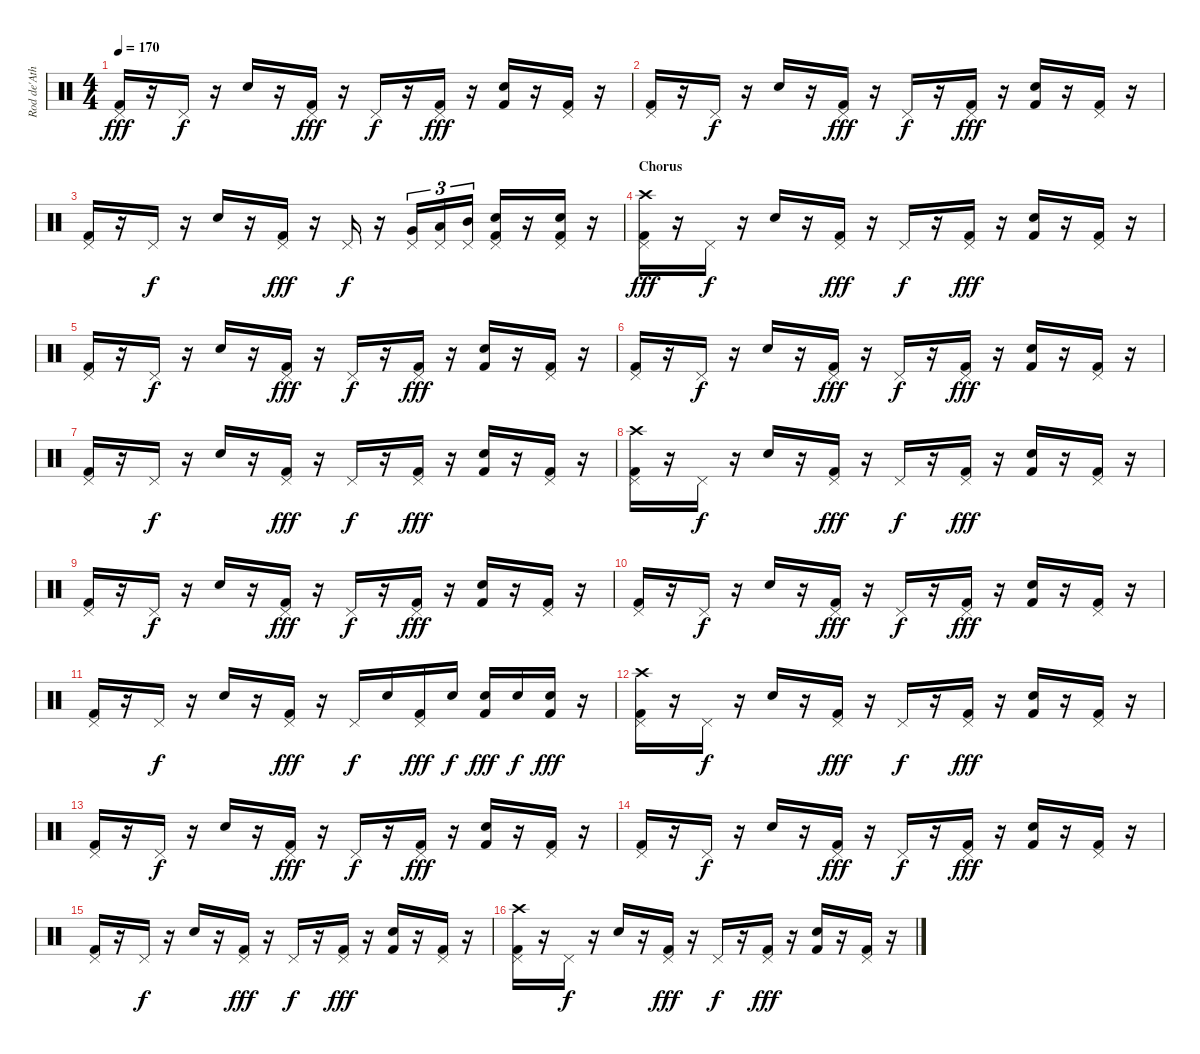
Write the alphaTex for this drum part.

\track ("Rod de'Ath" "Rod de'Ath") {instrument percussion}
\staff {score}
\articulation defaults
\ts (4 4)
\tempo 170
\clef neutral
\ks c
("Pedal Hi-Hat (hit)" "Kick (hit) 2").16{dy fff} r.16 "Pedal Hi-Hat (hit)".16{dy f} r.16 "Snare (hit) 2".16 r.16 ("Pedal Hi-Hat (hit)" "Kick (hit) 2").16{dy fff} r.16 "Pedal Hi-Hat (hit)".16{dy f} r.16 ("Pedal Hi-Hat (hit)" "Kick (hit) 2").16{dy fff} r.16 ("Electric Snare (hit)" "Kick (hit) 2").16 r.16 ("Pedal Hi-Hat (hit)" "Kick (hit) 2").16 r.16 |
("Pedal Hi-Hat (hit)" "Kick (hit) 2").16 r.16 "Pedal Hi-Hat (hit)".16{dy f} r.16 "Snare (hit) 2".16 r.16 ("Pedal Hi-Hat (hit)" "Kick (hit) 2").16{dy fff} r.16 "Pedal Hi-Hat (hit)".16{dy f} r.16 ("Pedal Hi-Hat (hit)" "Kick (hit) 2").16{dy fff} r.16 ("Electric Snare (hit)" "Kick (hit) 2").16 r.16 ("Pedal Hi-Hat (hit)" "Kick (hit) 2").16 r.16 |
("Pedal Hi-Hat (hit)" "Kick (hit) 2").16 r.16 "Pedal Hi-Hat (hit)".16{dy f} r.16 "Snare (hit) 2".16 r.16 ("Pedal Hi-Hat (hit)" "Kick (hit) 2").16{dy fff} r.16 "Pedal Hi-Hat (hit)".16{dy f} r.16 ("Pedal Hi-Hat (hit)" "Very Low Tom (hit)").16{tu (3 2)} ("Pedal Hi-Hat (hit)" "Low Tom (hit)").16{tu (3 2)} ("Pedal Hi-Hat (hit)" "Mid Tom (hit)").16{tu (3 2)} ("Pedal Hi-Hat (hit)" "Snare (hit) 2" "Kick (hit) 2").16 r.16 ("Pedal Hi-Hat (hit)" "Electric Snare (hit)" "Kick (hit) 2").16 r.16 |
\section ("" "Chorus")
("Crash high (hit)" "Pedal Hi-Hat (hit)" "Kick (hit) 2").16{dy fff} r.16 "Pedal Hi-Hat (hit)".16{dy f} r.16 "Snare (hit) 2".16 r.16 ("Pedal Hi-Hat (hit)" "Kick (hit) 2").16{dy fff} r.16 "Pedal Hi-Hat (hit)".16{dy f} r.16 ("Pedal Hi-Hat (hit)" "Kick (hit) 2").16{dy fff} r.16 ("Electric Snare (hit)" "Kick (hit) 2").16 r.16 ("Pedal Hi-Hat (hit)" "Kick (hit) 2").16 r.16 |
("Pedal Hi-Hat (hit)" "Kick (hit) 2").16 r.16 "Pedal Hi-Hat (hit)".16{dy f} r.16 "Snare (hit) 2".16 r.16 ("Pedal Hi-Hat (hit)" "Kick (hit) 2").16{dy fff} r.16 "Pedal Hi-Hat (hit)".16{dy f} r.16 ("Pedal Hi-Hat (hit)" "Kick (hit) 2").16{dy fff} r.16 ("Electric Snare (hit)" "Kick (hit) 2").16 r.16 ("Pedal Hi-Hat (hit)" "Kick (hit) 2").16 r.16 |
("Pedal Hi-Hat (hit)" "Kick (hit) 2").16 r.16 "Pedal Hi-Hat (hit)".16{dy f} r.16 "Snare (hit) 2".16 r.16 ("Pedal Hi-Hat (hit)" "Kick (hit) 2").16{dy fff} r.16 "Pedal Hi-Hat (hit)".16{dy f} r.16 ("Pedal Hi-Hat (hit)" "Kick (hit) 2").16{dy fff} r.16 ("Electric Snare (hit)" "Kick (hit) 2").16 r.16 ("Pedal Hi-Hat (hit)" "Kick (hit) 2").16 r.16 |
("Pedal Hi-Hat (hit)" "Kick (hit) 2").16 r.16 "Pedal Hi-Hat (hit)".16{dy f} r.16 "Snare (hit) 2".16 r.16 ("Pedal Hi-Hat (hit)" "Kick (hit) 2").16{dy fff} r.16 "Pedal Hi-Hat (hit)".16{dy f} r.16 ("Pedal Hi-Hat (hit)" "Kick (hit) 2").16{dy fff} r.16 ("Electric Snare (hit)" "Kick (hit) 2").16 r.16 ("Pedal Hi-Hat (hit)" "Kick (hit) 2").16 r.16 |
("Crash high (hit)" "Pedal Hi-Hat (hit)" "Kick (hit) 2").16 r.16 "Pedal Hi-Hat (hit)".16{dy f} r.16 "Snare (hit) 2".16 r.16 ("Pedal Hi-Hat (hit)" "Kick (hit) 2").16{dy fff} r.16 "Pedal Hi-Hat (hit)".16{dy f} r.16 ("Pedal Hi-Hat (hit)" "Kick (hit) 2").16{dy fff} r.16 ("Electric Snare (hit)" "Kick (hit) 2").16 r.16 ("Pedal Hi-Hat (hit)" "Kick (hit) 2").16 r.16 |
("Pedal Hi-Hat (hit)" "Kick (hit) 2").16 r.16 "Pedal Hi-Hat (hit)".16{dy f} r.16 "Snare (hit) 2".16 r.16 ("Pedal Hi-Hat (hit)" "Kick (hit) 2").16{dy fff} r.16 "Pedal Hi-Hat (hit)".16{dy f} r.16 ("Pedal Hi-Hat (hit)" "Kick (hit) 2").16{dy fff} r.16 ("Electric Snare (hit)" "Kick (hit) 2").16 r.16 ("Pedal Hi-Hat (hit)" "Kick (hit) 2").16 r.16 |
("Pedal Hi-Hat (hit)" "Kick (hit) 2").16 r.16 "Pedal Hi-Hat (hit)".16{dy f} r.16 "Snare (hit) 2".16 r.16 ("Pedal Hi-Hat (hit)" "Kick (hit) 2").16{dy fff} r.16 "Pedal Hi-Hat (hit)".16{dy f} r.16 ("Pedal Hi-Hat (hit)" "Kick (hit) 2").16{dy fff} r.16 ("Electric Snare (hit)" "Kick (hit) 2").16 r.16 ("Pedal Hi-Hat (hit)" "Kick (hit) 2").16 r.16 |
("Pedal Hi-Hat (hit)" "Kick (hit) 2").16 r.16 "Pedal Hi-Hat (hit)".16{dy f} r.16 "Snare (hit) 2".16 r.16 ("Pedal Hi-Hat (hit)" "Kick (hit) 2").16{dy fff} r.16 "Pedal Hi-Hat (hit)".16{dy f} "Electric Snare (hit)".16 ("Pedal Hi-Hat (hit)" "Kick (hit) 2").16{dy fff} "Electric Snare (hit)".16{dy f} ("Electric Snare (hit)" "Kick (hit) 2").16{dy fff} "Electric Snare (hit)".16{dy f} ("Electric Snare (hit)" "Kick (hit) 2").16{dy fff} r.16 |
("Crash high (hit)" "Pedal Hi-Hat (hit)" "Kick (hit) 2").16 r.16 "Pedal Hi-Hat (hit)".16{dy f} r.16 "Snare (hit) 2".16 r.16 ("Pedal Hi-Hat (hit)" "Kick (hit) 2").16{dy fff} r.16 "Pedal Hi-Hat (hit)".16{dy f} r.16 ("Pedal Hi-Hat (hit)" "Kick (hit) 2").16{dy fff} r.16 ("Electric Snare (hit)" "Kick (hit) 2").16 r.16 ("Pedal Hi-Hat (hit)" "Kick (hit) 2").16 r.16 |
("Pedal Hi-Hat (hit)" "Kick (hit) 2").16 r.16 "Pedal Hi-Hat (hit)".16{dy f} r.16 "Snare (hit) 2".16 r.16 ("Pedal Hi-Hat (hit)" "Kick (hit) 2").16{dy fff} r.16 "Pedal Hi-Hat (hit)".16{dy f} r.16 ("Pedal Hi-Hat (hit)" "Kick (hit) 2").16{dy fff} r.16 ("Electric Snare (hit)" "Kick (hit) 2").16 r.16 ("Pedal Hi-Hat (hit)" "Kick (hit) 2").16 r.16 |
("Pedal Hi-Hat (hit)" "Kick (hit) 2").16 r.16 "Pedal Hi-Hat (hit)".16{dy f} r.16 "Snare (hit) 2".16 r.16 ("Pedal Hi-Hat (hit)" "Kick (hit) 2").16{dy fff} r.16 "Pedal Hi-Hat (hit)".16{dy f} r.16 ("Pedal Hi-Hat (hit)" "Kick (hit) 2").16{dy fff} r.16 ("Electric Snare (hit)" "Kick (hit) 2").16 r.16 ("Pedal Hi-Hat (hit)" "Kick (hit) 2").16 r.16 |
("Pedal Hi-Hat (hit)" "Kick (hit) 2").16 r.16 "Pedal Hi-Hat (hit)".16{dy f} r.16 "Snare (hit) 2".16 r.16 ("Pedal Hi-Hat (hit)" "Kick (hit) 2").16{dy fff} r.16 "Pedal Hi-Hat (hit)".16{dy f} r.16 ("Pedal Hi-Hat (hit)" "Kick (hit) 2").16{dy fff} r.16 ("Electric Snare (hit)" "Kick (hit) 2").16 r.16 ("Pedal Hi-Hat (hit)" "Kick (hit) 2").16 r.16 |
("Crash high (hit)" "Pedal Hi-Hat (hit)" "Kick (hit) 2").16 r.16 "Pedal Hi-Hat (hit)".16{dy f} r.16 "Snare (hit) 2".16 r.16 ("Pedal Hi-Hat (hit)" "Kick (hit) 2").16{dy fff} r.16 "Pedal Hi-Hat (hit)".16{dy f} r.16 ("Pedal Hi-Hat (hit)" "Kick (hit) 2").16{dy fff} r.16 ("Electric Snare (hit)" "Kick (hit) 2").16 r.16 ("Pedal Hi-Hat (hit)" "Kick (hit) 2").16 r.16
